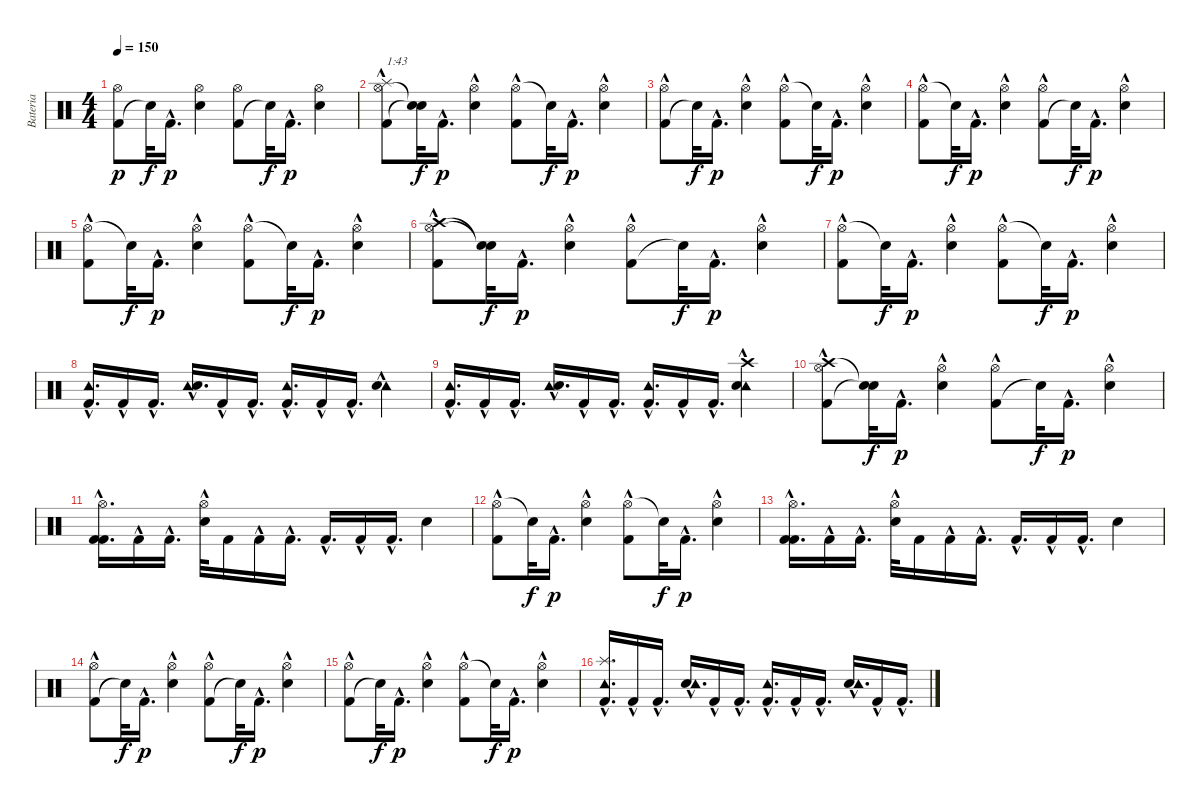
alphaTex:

\track ("Bateria" "Bateria") {instrument percussion}
\staff {score}
\articulation defaults
\ts (4 4)
\tempo 150
\clef neutral
\ks c
("Kick (hit) 2" "Hi-Hat (open)").8{dy p} "Snare (hit)"{t}.32{dy f} "Kick (hit) 2"{hac}.16{d dy p} ("Snare (hit) 2" "Hi-Hat (open)").4 ("Kick (hit) 2" "Hi-Hat (open)").8 "Snare (hit)"{t}.32{dy f} "Kick (hit) 2"{hac}.16{d dy p} ("Snare (hit) 2" "Hi-Hat (open)").4 |
("Hi-Hat (open)" "Kick (hit) 2"{hac} "Splash (hit)").8{txt "1:43"} ("Snare (hit)"{t} "Snare (hit)"{t}).32{dy f} "Kick (hit) 2"{hac}.16{d dy p} ("Hi-Hat (open)" "Snare (hit) 2"{hac}).4 ("Hi-Hat (open)" "Kick (hit) 2"{hac}).8 "Snare (hit)"{t}.32{dy f} "Kick (hit) 2"{hac}.16{d dy p} ("Hi-Hat (open)" "Snare (hit) 2"{hac}).4 |
("Kick (hit) 2"{hac} "Hi-Hat (open)").8 "Snare (hit)"{t}.32{dy f} "Kick (hit) 2"{hac}.16{d dy p} ("Snare (hit) 2"{hac} "Hi-Hat (open)").4 ("Hi-Hat (open)" "Kick (hit) 2"{hac}).8 "Snare (hit)"{t}.32{dy f} "Kick (hit) 2"{hac}.16{d dy p} ("Snare (hit) 2"{hac} "Hi-Hat (open)").4 |
("Hi-Hat (open)" "Kick (hit) 2"{hac}).8 "Snare (hit)"{t}.32{dy f} "Kick (hit) 2"{hac}.16{d dy p} ("Hi-Hat (open)" "Snare (hit) 2"{hac}).4 ("Kick (hit) 2"{hac} "Hi-Hat (open)").8 "Snare (hit)"{t}.32{dy f} "Kick (hit) 2"{hac}.16{d dy p} ("Hi-Hat (open)" "Snare (hit) 2"{hac}).4 |
("Hi-Hat (open)" "Kick (hit) 2"{hac}).8 "Snare (hit)"{t}.32{dy f} "Kick (hit) 2"{hac}.16{d dy p} ("Hi-Hat (open)" "Snare (hit) 2"{hac}).4 ("Hi-Hat (open)" "Kick (hit) 2"{hac}).8 "Snare (hit)"{t}.32{dy f} "Kick (hit) 2"{hac}.16{d dy p} ("Hi-Hat (open)" "Snare (hit) 2"{hac}).4 |
("Hi-Hat (open)" "Crash high (hit)" "Kick (hit) 2"{hac}).8 ("Snare (hit)"{t} "Snare (hit)"{t}).32{dy f} "Kick (hit) 2"{hac}.16{d dy p} ("Snare (hit) 2"{hac} "Hi-Hat (open)").4 ("Kick (hit) 2"{hac} "Hi-Hat (open)").8 "Snare (hit)"{t}.32{dy f} "Kick (hit) 2"{hac}.16{d dy p} ("Snare (hit) 2"{hac} "Hi-Hat (open)").4 |
("Hi-Hat (open)" "Kick (hit) 2"{hac}).8 "Snare (hit)"{t}.32{dy f} "Kick (hit) 2"{hac}.16{d dy p} ("Snare (hit) 2"{hac} "Hi-Hat (open)").4 ("Hi-Hat (open)" "Kick (hit) 2"{hac}).8 "Snare (hit)"{t}.32{dy f} "Kick (hit) 2"{hac}.16{d dy p} ("Hi-Hat (open)" "Snare (hit) 2"{hac}).4 |
("Kick (hit) 2"{hac} "Tambourine (hit)").16{d} "Kick (hit) 2"{hac}.16 "Kick (hit) 2"{hac}.16{d} ("Tambourine (hit)" "Snare (hit) 2"{hac}).16{d} "Kick (hit) 2"{hac}.16 "Kick (hit) 2"{hac}.16{d} ("Kick (hit) 2"{hac} "Tambourine (hit)").16{d} "Kick (hit) 2"{hac}.16 "Kick (hit) 2"{hac}.16{d} ("Tambourine (hit)" "Snare (hit) 2"{hac}).4 |
("Tambourine (hit)" "Kick (hit) 2"{hac}).16{d} "Kick (hit) 2"{hac}.16 "Kick (hit) 2"{hac}.16{d} ("Tambourine (hit)" "Snare (hit) 2"{hac}).16{d} "Kick (hit) 2"{hac}.16 "Kick (hit) 2"{hac}.16{d} ("Tambourine (hit)" "Kick (hit) 2"{hac}).16{d} "Kick (hit) 2"{hac}.16 "Kick (hit) 2"{hac}.16{d} ("Crash high (hit)" "Tambourine (hit)" "Snare (hit) 2"{hac}).4 |
("Crash high (hit)" "Kick (hit) 2"{hac} "Hi-Hat (open)").8 ("Snare (hit)"{t} "Snare (hit)"{t}).32{dy f} "Kick (hit) 2"{hac}.16{d dy p} ("Snare (hit) 2"{hac} "Hi-Hat (open)").4 ("Kick (hit) 2"{hac} "Hi-Hat (open)").8 "Snare (hit)"{t}.32{dy f} "Kick (hit) 2"{hac}.16{d dy p} ("Snare (hit) 2"{hac} "Hi-Hat (open)").4 |
("Kick (hit) 2"{hac} "Kick (hit) 2"{hac} "Hi-Hat (open)").16{d} "Kick (hit) 2"{hac}.16 "Kick (hit) 2"{hac}.16{d} ("Hi-Hat (open)" "Snare (hit) 2"{hac}).32 "Kick (hit) 2".16 "Kick (hit) 2"{hac}.16 "Kick (hit) 2"{hac}.16{d} "Kick (hit) 2"{hac}.16{d} "Kick (hit) 2"{hac}.16 "Kick (hit) 2"{hac}.16{d} "Snare (hit) 2".4 |
("Hi-Hat (open)" "Kick (hit) 2"{hac}).8 "Snare (hit)"{t}.32{dy f} "Kick (hit) 2"{hac}.16{d dy p} ("Hi-Hat (open)" "Snare (hit) 2"{hac}).4 ("Hi-Hat (open)" "Kick (hit) 2"{hac}).8 "Snare (hit)"{t}.32{dy f} "Kick (hit) 2"{hac}.16{d dy p} ("Hi-Hat (open)" "Snare (hit) 2"{hac}).4 |
("Kick (hit) 2"{hac} "Hi-Hat (open)" "Kick (hit) 2"{hac}).16{d} "Kick (hit) 2"{hac}.16 "Kick (hit) 2"{hac}.16{d} ("Hi-Hat (open)" "Snare (hit) 2"{hac}).32 "Kick (hit) 2".16 "Kick (hit) 2"{hac}.16 "Kick (hit) 2"{hac}.16{d} "Kick (hit) 2"{hac}.16{d} "Kick (hit) 2"{hac}.16 "Kick (hit) 2"{hac}.16{d} "Snare (hit) 2".4 |
("Kick (hit) 2"{hac} "Hi-Hat (open)").8 "Snare (hit)"{t}.32{dy f} "Kick (hit) 2"{hac}.16{d dy p} ("Snare (hit) 2"{hac} "Hi-Hat (open)").4 ("Kick (hit) 2"{hac} "Hi-Hat (open)").8 "Snare (hit)"{t}.32{dy f} "Kick (hit) 2"{hac}.16{d dy p} ("Snare (hit) 2"{hac} "Hi-Hat (open)").4 |
("Kick (hit) 2"{hac} "Hi-Hat (open)").8 "Snare (hit)"{t}.32{dy f} "Kick (hit) 2"{hac}.16{d dy p} ("Snare (hit) 2"{hac} "Hi-Hat (open)").4 ("Hi-Hat (open)" "Kick (hit) 2"{hac}).8 "Snare (hit)"{t}.32{dy f} "Kick (hit) 2"{hac}.16{d dy p} ("Hi-Hat (open)" "Snare (hit) 2"{hac}).4 |
("Tambourine (hit)" "Kick (hit) 2"{hac} "Splash (hit)").16{d} "Kick (hit) 2"{hac}.16 "Kick (hit) 2"{hac}.16{d} ("Snare (hit) 2"{hac} "Tambourine (hit)").16{d} "Kick (hit) 2"{hac}.16 "Kick (hit) 2"{hac}.16{d} ("Kick (hit) 2"{hac} "Tambourine (hit)").16{d} "Kick (hit) 2"{hac}.16 "Kick (hit) 2"{hac}.16{d} ("Snare (hit) 2"{hac} "Tambourine (hit)").16{d} "Kick (hit) 2"{hac}.16 "Kick (hit) 2"{hac}.16{d}
